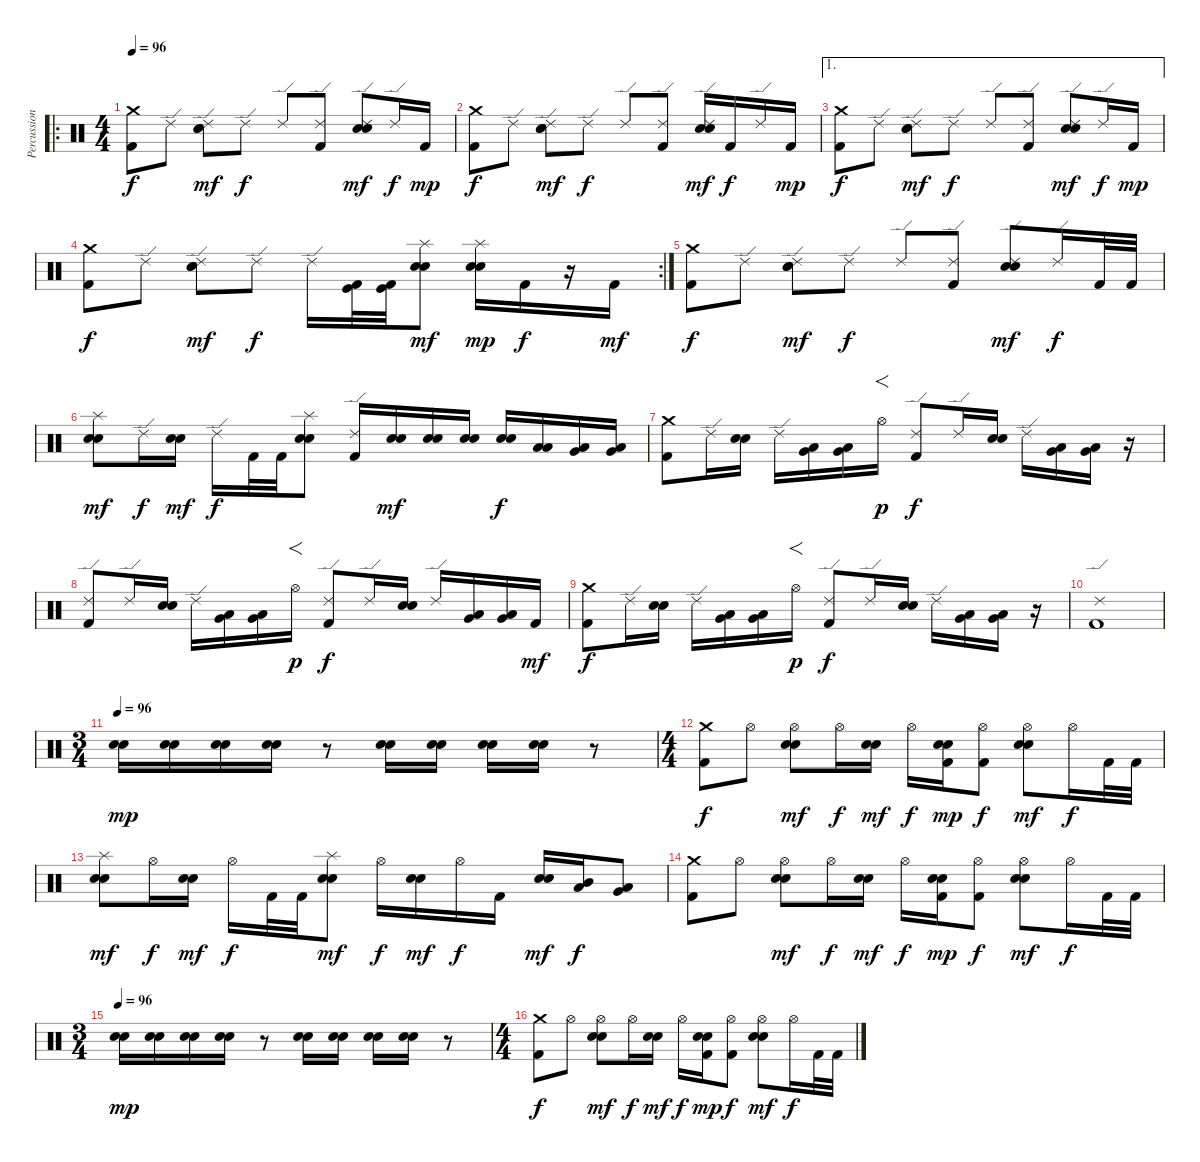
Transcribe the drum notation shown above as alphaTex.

\track ("Percussions" "Percussion") {instrument percussion}
\staff {score}
\articulation defaults
\ro
\ts (4 4)
\tempo 96
\clef neutral
\ks c
("Crash medium (hit)" "Kick (hit) 2").8{dy f} "Ride (edge) 2".8 ("Ride (edge) 2" "Snare (hit) 2" "Electric Snare (hit)").8{dy mf} "Ride (edge) 2".8{dy f} "Ride (edge) 2".8 ("Ride (edge) 2" "Kick (hit) 2").8 ("Ride (edge) 2" "Snare (hit) 2" "Electric Snare (hit)").8{dy mf} "Ride (edge) 2".16{dy f} "Kick (hit) 2".16{dy mp} |
("Crash medium (hit)" "Kick (hit) 2").8{dy f} "Ride (edge) 2".8 ("Ride (edge) 2" "Snare (hit) 2" "Electric Snare (hit)").8{dy mf} "Ride (edge) 2".8{dy f} "Ride (edge) 2".8 ("Ride (edge) 2" "Kick (hit) 2").8 ("Ride (edge) 2" "Snare (hit) 2" "Electric Snare (hit)").16{dy mf} "Kick (hit) 2".16{dy f} "Ride (edge) 2".16 "Kick (hit) 2".16{dy mp} |
\ae 1
("Crash medium (hit)" "Kick (hit) 2").8{dy f} "Ride (edge) 2".8 ("Ride (edge) 2" "Snare (hit) 2" "Electric Snare (hit)").8{dy mf} "Ride (edge) 2".8{dy f} "Ride (edge) 2".8 ("Ride (edge) 2" "Kick (hit) 2").8 ("Ride (edge) 2" "Snare (hit) 2" "Electric Snare (hit)").8{dy mf} "Ride (edge) 2".16{dy f} "Kick (hit) 2".16{dy mp} |
\rc 2
("Crash medium (hit)" "Kick (hit) 2").8{dy f} "Ride (edge) 2".8 ("Ride (edge) 2" "Snare (hit) 2" "Electric Snare (hit)").8{dy mf} "Ride (edge) 2".8{dy f} "Ride (edge) 2".16 ("Kick (hit)" "Kick (hit) 2").32 ("Kick (hit)" "Kick (hit) 2").32 ("Splash (hit)" "Snare (hit) 2" "Electric Snare (hit)").8{dy mf} ("Splash (hit)" "Snare (hit) 2" "Electric Snare (hit)").16{dy mp} "Kick (hit) 2".16{dy f} r.16 "Kick (hit) 2".16{dy mf} |
("Crash medium (hit)" "Kick (hit) 2").8{dy f} "Ride (edge) 2".8 ("Ride (edge) 2" "Snare (hit) 2" "Electric Snare (hit)").8{dy mf} "Ride (edge) 2".8{dy f} "Ride (edge) 2".8 ("Ride (edge) 2" "Kick (hit) 2").8 ("Ride (edge) 2" "Snare (hit) 2" "Electric Snare (hit)").8{dy mf} "Ride (edge) 2".16{dy f} "Kick (hit) 2".32 "Kick (hit) 2".32 |
("Splash (hit)" "Snare (hit) 2" "Electric Snare (hit)").8{dy mf} "Ride (edge) 2".16{dy f} ("Snare (hit) 2" "Electric Snare (hit)").16{dy mf} "Ride (edge) 2".16{dy f} "Kick (hit) 2".32 "Kick (hit) 2".32 ("Splash (hit)" "Snare (hit) 2" "Electric Snare (hit)").8 ("Ride (edge) 2" "Kick (hit) 2").16 ("Snare (hit) 2" "Electric Snare (hit)").16{dy mf} ("Snare (hit) 2" "Electric Snare (hit)").16 ("Snare (hit) 2" "Electric Snare (hit)").16 ("Snare (hit) 2" "Electric Snare (hit)").16{dy f} ("Low Tom (hit)" "Low Tom (hit)").16 ("Low Tom (hit)" "Very Low Tom (hit)").16 ("Very Low Tom (hit)" "Low Floor Tom (hit)").16 |
("Crash medium (hit)" "Kick (hit) 2").8 "Ride (edge) 2".16 ("Snare (hit) 2" "Electric Snare (hit)").16 "Ride (edge) 2".16 ("Low Tom (hit)" "Very Low Tom (hit)").16 ("Low Tom (hit)" "Very Low Tom (hit)").16 "Hi-Hat (open)".16{f dy p} ("Ride (edge) 2" "Kick (hit) 2").8{dy f} "Ride (edge) 2".16 ("Snare (hit) 2" "Electric Snare (hit)").16 "Ride (edge) 2".16 ("Low Tom (hit)" "Very Low Tom (hit)").16 ("Low Tom (hit)" "Very Low Tom (hit)").16 r.16 |
("Ride (edge) 2" "Kick (hit) 2").8 "Ride (edge) 2".16 ("Snare (hit) 2" "Electric Snare (hit)").16 "Ride (edge) 2".16 ("Low Tom (hit)" "Very Low Tom (hit)").16 ("Low Tom (hit)" "Very Low Tom (hit)").16 "Hi-Hat (open)".16{f dy p} ("Ride (edge) 2" "Kick (hit) 2").8{dy f} "Ride (edge) 2".16 ("Snare (hit) 2" "Electric Snare (hit)").16 "Ride (edge) 2".16 ("Low Tom (hit)" "Very Low Tom (hit)").16 ("Low Tom (hit)" "Very Low Tom (hit)").16 "Kick (hit) 2".16{dy mf} |
("Crash medium (hit)" "Kick (hit) 2").8{dy f} "Ride (edge) 2".16 ("Snare (hit) 2" "Electric Snare (hit)").16 "Ride (edge) 2".16 ("Low Tom (hit)" "Very Low Tom (hit)").16 ("Low Tom (hit)" "Very Low Tom (hit)").16 "Hi-Hat (open)".16{f dy p} ("Ride (edge) 2" "Kick (hit) 2").8{dy f} "Ride (edge) 2".16 ("Snare (hit) 2" "Electric Snare (hit)").16 "Ride (edge) 2".16 ("Low Tom (hit)" "Very Low Tom (hit)").16 ("Low Tom (hit)" "Very Low Tom (hit)").16 r.16 |
("Ride (edge) 2" "Kick (hit) 2").1 |
\ts (3 4)
\tempo 96
("Snare (hit) 2" "Electric Snare (hit)").16{dy mp} ("Snare (hit) 2" "Electric Snare (hit)").16 ("Snare (hit) 2" "Electric Snare (hit)").16 ("Snare (hit) 2" "Electric Snare (hit)").16 r.8 ("Snare (hit) 2" "Electric Snare (hit)").16 ("Snare (hit) 2" "Electric Snare (hit)").16 ("Snare (hit) 2" "Electric Snare (hit)").16 ("Snare (hit) 2" "Electric Snare (hit)").16 r.8 |
\ts (4 4)
("Crash medium (hit)" "Kick (hit) 2").8{dy f} "Hi-Hat (open)".8 ("Hi-Hat (open)" "Snare (hit) 2" "Electric Snare (hit)").8{dy mf} "Hi-Hat (open)".16{dy f} ("Snare (hit) 2" "Electric Snare (hit)").16{dy mf} "Hi-Hat (open)".16{dy f} ("Snare (hit) 2" "Electric Snare (hit)" "Kick (hit) 2").16{dy mp} ("Hi-Hat (open)" "Kick (hit) 2").8{dy f} ("Hi-Hat (open)" "Snare (hit) 2" "Electric Snare (hit)").8{dy mf} "Hi-Hat (open)".16{dy f} "Kick (hit) 2".32 "Kick (hit) 2".32 |
("Splash (hit)" "Snare (hit) 2" "Electric Snare (hit)").8{dy mf} "Hi-Hat (open)".16{dy f} ("Snare (hit) 2" "Electric Snare (hit)").16{dy mf} "Hi-Hat (open)".16{dy f} "Kick (hit) 2".32 "Kick (hit) 2".32 ("Splash (hit)" "Snare (hit) 2" "Electric Snare (hit)").8{dy mf} "Hi-Hat (open)".16{dy f} ("Snare (hit) 2" "Electric Snare (hit)").16{dy mf} "Hi-Hat (open)".16{dy f} "Kick (hit) 2".16 ("Snare (hit) 2" "Electric Snare (hit)").16{dy mf} ("Mid Tom (hit)" "Low Tom (hit)").16{dy f} ("Low Tom (hit)" "Very Low Tom (hit)").8 |
("Crash medium (hit)" "Kick (hit) 2").8 "Hi-Hat (open)".8 ("Hi-Hat (open)" "Snare (hit) 2" "Electric Snare (hit)").8{dy mf} "Hi-Hat (open)".16{dy f} ("Snare (hit) 2" "Electric Snare (hit)").16{dy mf} "Hi-Hat (open)".16{dy f} ("Snare (hit) 2" "Electric Snare (hit)" "Kick (hit) 2").16{dy mp} ("Hi-Hat (open)" "Kick (hit) 2").8{dy f} ("Hi-Hat (open)" "Snare (hit) 2" "Electric Snare (hit)").8{dy mf} "Hi-Hat (open)".16{dy f} "Kick (hit) 2".32 "Kick (hit) 2".32 |
\ts (3 4)
\tempo 96
("Snare (hit) 2" "Electric Snare (hit)").16{dy mp} ("Snare (hit) 2" "Electric Snare (hit)").16 ("Snare (hit) 2" "Electric Snare (hit)").16 ("Snare (hit) 2" "Electric Snare (hit)").16 r.8 ("Snare (hit) 2" "Electric Snare (hit)").16 ("Snare (hit) 2" "Electric Snare (hit)").16 ("Snare (hit) 2" "Electric Snare (hit)").16 ("Snare (hit) 2" "Electric Snare (hit)").16 r.8 |
\ts (4 4)
("Crash medium (hit)" "Kick (hit) 2").8{dy f} "Hi-Hat (open)".8 ("Hi-Hat (open)" "Snare (hit) 2" "Electric Snare (hit)").8{dy mf} "Hi-Hat (open)".16{dy f} ("Snare (hit) 2" "Electric Snare (hit)").16{dy mf} "Hi-Hat (open)".16{dy f} ("Snare (hit) 2" "Electric Snare (hit)" "Kick (hit) 2").16{dy mp} ("Hi-Hat (open)" "Kick (hit) 2").8{dy f} ("Hi-Hat (open)" "Snare (hit) 2" "Electric Snare (hit)").8{dy mf} "Hi-Hat (open)".16{dy f} "Kick (hit) 2".32 "Kick (hit) 2".32
